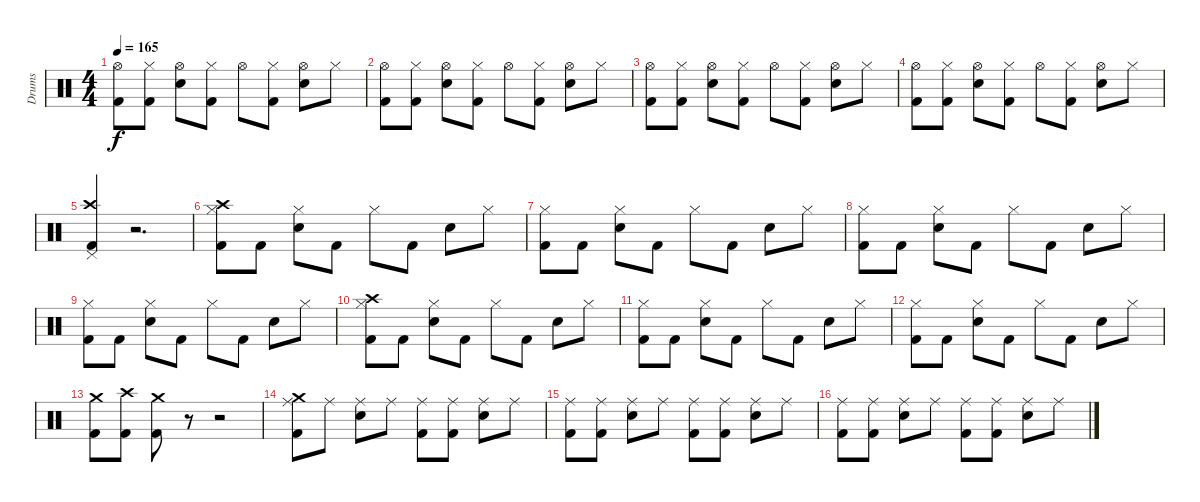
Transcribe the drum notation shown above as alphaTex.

\track ("Drums" "Drums") {instrument percussion}
\staff {score}
\articulation defaults
\ts (4 4)
\tempo 165
\clef neutral
\ks c
("Kick (hit) 2" "Hi-Hat (open)").8{dy f} ("Kick (hit) 2" "Hi-Hat (closed)").8 ("Snare (hit) 2" "Hi-Hat (open)").8 ("Kick (hit) 2" "Hi-Hat (closed)").8 "Hi-Hat (open)".8 ("Kick (hit) 2" "Hi-Hat (closed)").8 ("Snare (hit) 2" "Hi-Hat (open)").8 "Hi-Hat (closed)".8 |
("Kick (hit) 2" "Hi-Hat (open)").8 ("Kick (hit) 2" "Hi-Hat (closed)").8 ("Snare (hit) 2" "Hi-Hat (open)").8 ("Kick (hit) 2" "Hi-Hat (closed)").8 "Hi-Hat (open)".8 ("Kick (hit) 2" "Hi-Hat (closed)").8 ("Snare (hit) 2" "Hi-Hat (open)").8 "Hi-Hat (closed)".8 |
("Kick (hit) 2" "Hi-Hat (open)").8 ("Kick (hit) 2" "Hi-Hat (closed)").8 ("Snare (hit) 2" "Hi-Hat (open)").8 ("Kick (hit) 2" "Hi-Hat (closed)").8 "Hi-Hat (open)".8 ("Kick (hit) 2" "Hi-Hat (closed)").8 ("Snare (hit) 2" "Hi-Hat (open)").8 "Hi-Hat (closed)".8 |
("Kick (hit) 2" "Hi-Hat (open)").8 ("Kick (hit) 2" "Hi-Hat (closed)").8 ("Snare (hit) 2" "Hi-Hat (open)").8 ("Kick (hit) 2" "Hi-Hat (closed)").8 "Hi-Hat (open)".8 ("Kick (hit) 2" "Hi-Hat (closed)").8 ("Snare (hit) 2" "Hi-Hat (open)").8 "Hi-Hat (closed)".8 |
("Kick (hit) 2" "Crash high (hit)" "Pedal Hi-Hat (hit)").4 r.2{d} |
("Crash high (hit)" "Kick (hit) 2" "Hi-Hat (closed)").8 "Kick (hit) 2".8 ("Snare (hit) 2" "Hi-Hat (closed)").8 "Kick (hit) 2".8 "Hi-Hat (closed)".8 "Kick (hit) 2".8 "Snare (hit) 2".8 "Hi-Hat (closed)".8 |
("Kick (hit) 2" "Hi-Hat (closed)").8 "Kick (hit) 2".8 ("Snare (hit) 2" "Hi-Hat (closed)").8 "Kick (hit) 2".8 "Hi-Hat (closed)".8 "Kick (hit) 2".8 "Snare (hit) 2".8 "Hi-Hat (closed)".8 |
("Kick (hit) 2" "Hi-Hat (closed)").8 "Kick (hit) 2".8 ("Snare (hit) 2" "Hi-Hat (closed)").8 "Kick (hit) 2".8 "Hi-Hat (closed)".8 "Kick (hit) 2".8 "Snare (hit) 2".8 "Hi-Hat (closed)".8 |
("Kick (hit) 2" "Hi-Hat (closed)").8 "Kick (hit) 2".8 ("Snare (hit) 2" "Hi-Hat (closed)").8 "Kick (hit) 2".8 "Hi-Hat (closed)".8 "Kick (hit) 2".8 "Snare (hit) 2".8 "Hi-Hat (closed)".8 |
("Crash high (hit)" "Kick (hit) 2" "Hi-Hat (closed)").8 "Kick (hit) 2".8 ("Snare (hit) 2" "Hi-Hat (closed)").8 "Kick (hit) 2".8 "Hi-Hat (closed)".8 "Kick (hit) 2".8 "Snare (hit) 2".8 "Hi-Hat (closed)".8 |
("Kick (hit) 2" "Hi-Hat (closed)").8 "Kick (hit) 2".8 ("Snare (hit) 2" "Hi-Hat (closed)").8 "Kick (hit) 2".8 "Hi-Hat (closed)".8 "Kick (hit) 2".8 "Snare (hit) 2".8 "Hi-Hat (closed)".8 |
("Kick (hit) 2" "Hi-Hat (closed)").8 "Kick (hit) 2".8 ("Snare (hit) 2" "Hi-Hat (closed)").8 "Kick (hit) 2".8 "Hi-Hat (closed)".8 "Kick (hit) 2".8 "Snare (hit) 2".8 "Hi-Hat (closed)".8 |
("Kick (hit) 2" "Crash medium (hit)").8 ("Kick (hit) 2" "Crash high (hit)").8 ("Kick (hit) 2" "Crash medium (hit)").8 r.8 r.2 |
("Crash medium (hit)" "Kick (hit) 2" "Ride (middle)").8 "Ride (middle)".8 ("Snare (hit) 2" "Ride (middle)").8 "Ride (middle)".8 ("Kick (hit) 2" "Ride (middle)").8 ("Kick (hit) 2" "Ride (middle)").8 ("Snare (hit) 2" "Ride (middle)").8 "Ride (middle)".8 |
("Kick (hit) 2" "Ride (middle)").8 ("Kick (hit) 2" "Ride (middle)").8 ("Snare (hit) 2" "Ride (middle)").8 "Ride (middle)".8 ("Kick (hit) 2" "Ride (middle)").8 ("Kick (hit) 2" "Ride (middle)").8 ("Snare (hit) 2" "Ride (middle)").8 "Ride (middle)".8 |
("Kick (hit) 2" "Ride (middle)").8 ("Kick (hit) 2" "Ride (middle)").8 ("Snare (hit) 2" "Ride (middle)").8 "Ride (middle)".8 ("Kick (hit) 2" "Ride (middle)").8 ("Kick (hit) 2" "Ride (middle)").8 ("Snare (hit) 2" "Ride (middle)").8 "Ride (middle)".8
